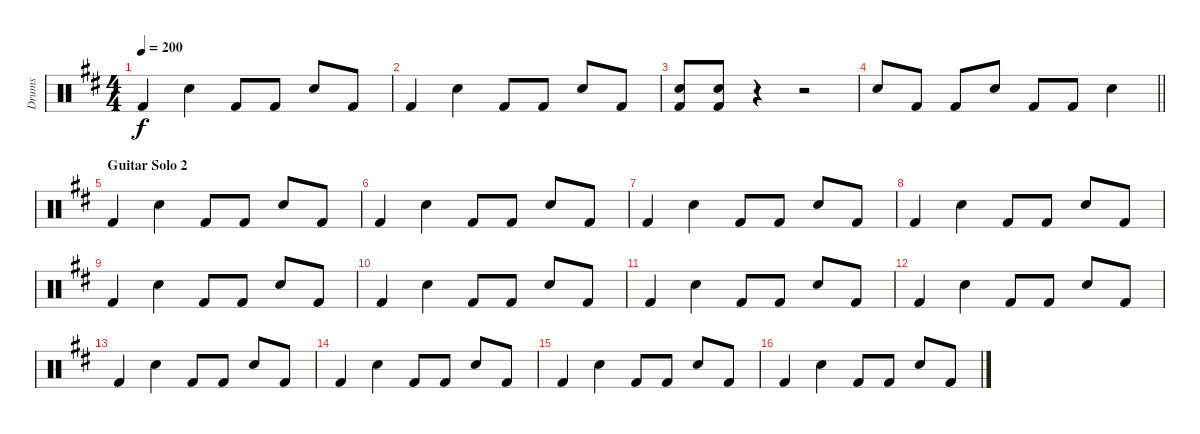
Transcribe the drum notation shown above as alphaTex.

\track ("Drums" "Drums") {instrument percussion}
\staff {score}
\articulation defaults
\ts (4 4)
\tempo 200
\clef neutral
\ks d "Kick (hit) 2".4{dy f} "Electric Snare (hit)".4 "Kick (hit) 2".8 "Kick (hit) 2".8 "Electric Snare (hit)".8 "Kick (hit) 2".8
|
"Kick (hit) 2".4 "Electric Snare (hit)".4 "Kick (hit) 2".8 "Kick (hit) 2".8 "Electric Snare (hit)".8 "Kick (hit) 2".8 |
("Electric Snare (hit)" "Kick (hit) 2").8 ("Electric Snare (hit)" "Kick (hit) 2").8 r.4 r.2 |
\barLineRight lightlight "Electric Snare (hit)".8 "Kick (hit) 2".8 "Kick (hit) 2".8 "Electric Snare (hit)".8 "Kick (hit) 2".8 "Kick (hit) 2".8 "Electric Snare (hit)".4
|
\section ("" "Guitar Solo 2")
"Kick (hit) 2".4 "Electric Snare (hit)".4 "Kick (hit) 2".8 "Kick (hit) 2".8 "Electric Snare (hit)".8 "Kick (hit) 2".8 |
"Kick (hit) 2".4 "Electric Snare (hit)".4 "Kick (hit) 2".8 "Kick (hit) 2".8 "Electric Snare (hit)".8 "Kick (hit) 2".8 |
"Kick (hit) 2".4 "Electric Snare (hit)".4 "Kick (hit) 2".8 "Kick (hit) 2".8 "Electric Snare (hit)".8 "Kick (hit) 2".8 |
"Kick (hit) 2".4 "Electric Snare (hit)".4 "Kick (hit) 2".8 "Kick (hit) 2".8 "Electric Snare (hit)".8 "Kick (hit) 2".8 |
"Kick (hit) 2".4 "Electric Snare (hit)".4 "Kick (hit) 2".8 "Kick (hit) 2".8 "Electric Snare (hit)".8 "Kick (hit) 2".8 |
"Kick (hit) 2".4 "Electric Snare (hit)".4 "Kick (hit) 2".8 "Kick (hit) 2".8 "Electric Snare (hit)".8 "Kick (hit) 2".8 |
"Kick (hit) 2".4 "Electric Snare (hit)".4 "Kick (hit) 2".8 "Kick (hit) 2".8 "Electric Snare (hit)".8 "Kick (hit) 2".8 |
"Kick (hit) 2".4 "Electric Snare (hit)".4 "Kick (hit) 2".8 "Kick (hit) 2".8 "Electric Snare (hit)".8 "Kick (hit) 2".8 |
"Kick (hit) 2".4 "Electric Snare (hit)".4 "Kick (hit) 2".8 "Kick (hit) 2".8 "Electric Snare (hit)".8 "Kick (hit) 2".8 |
"Kick (hit) 2".4 "Electric Snare (hit)".4 "Kick (hit) 2".8 "Kick (hit) 2".8 "Electric Snare (hit)".8 "Kick (hit) 2".8 |
"Kick (hit) 2".4 "Electric Snare (hit)".4 "Kick (hit) 2".8 "Kick (hit) 2".8 "Electric Snare (hit)".8 "Kick (hit) 2".8 |
"Kick (hit) 2".4 "Electric Snare (hit)".4 "Kick (hit) 2".8 "Kick (hit) 2".8 "Electric Snare (hit)".8 "Kick (hit) 2".8
